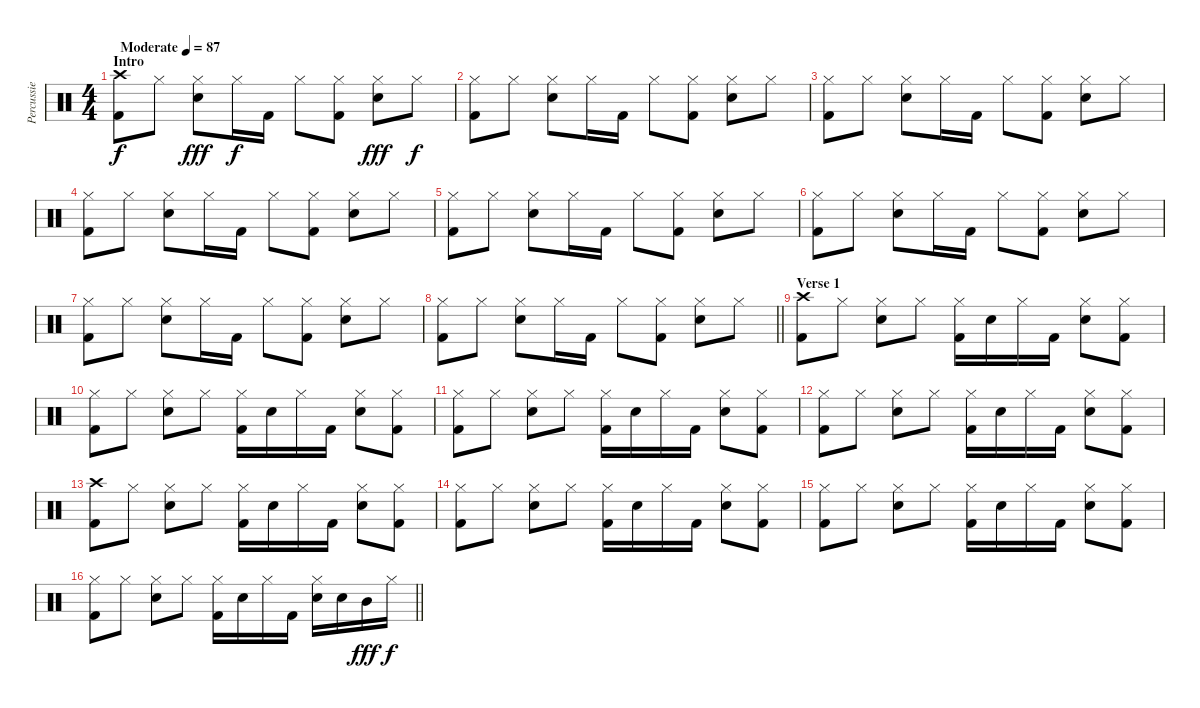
\track ("Percussie" "Percussie") {instrument percussion}
\staff {score}
\articulation defaults
\ts (4 4)
\section ("" "Intro")
\tempo (87 "Moderate")
\clef neutral
\ks c
("Crash high (hit)" "Kick (hit) 2").8{dy f} "Hi-Hat (closed)".8 ("Hi-Hat (closed)" "Snare (hit) 2").8{dy fff} "Hi-Hat (closed)".16{dy f} "Kick (hit) 2".16 "Hi-Hat (closed)".8 ("Hi-Hat (closed)" "Kick (hit) 2").8 ("Hi-Hat (closed)" "Snare (hit) 2").8{dy fff} "Hi-Hat (closed)".8{dy f} |
("Hi-Hat (closed)" "Kick (hit) 2").8 "Hi-Hat (closed)".8 ("Hi-Hat (closed)" "Snare (hit) 2").8 "Hi-Hat (closed)".16 "Kick (hit) 2".16 "Hi-Hat (closed)".8 ("Hi-Hat (closed)" "Kick (hit) 2").8 ("Hi-Hat (closed)" "Snare (hit) 2").8 "Hi-Hat (closed)".8 |
("Hi-Hat (closed)" "Kick (hit) 2").8 "Hi-Hat (closed)".8 ("Hi-Hat (closed)" "Snare (hit) 2").8 "Hi-Hat (closed)".16 "Kick (hit) 2".16 "Hi-Hat (closed)".8 ("Hi-Hat (closed)" "Kick (hit) 2").8 ("Hi-Hat (closed)" "Snare (hit) 2").8 "Hi-Hat (closed)".8 |
("Hi-Hat (closed)" "Kick (hit) 2").8 "Hi-Hat (closed)".8 ("Hi-Hat (closed)" "Snare (hit) 2").8 "Hi-Hat (closed)".16 "Kick (hit) 2".16 "Hi-Hat (closed)".8 ("Hi-Hat (closed)" "Kick (hit) 2").8 ("Hi-Hat (closed)" "Snare (hit) 2").8 "Hi-Hat (closed)".8 |
("Hi-Hat (closed)" "Kick (hit) 2").8 "Hi-Hat (closed)".8 ("Hi-Hat (closed)" "Snare (hit) 2").8 "Hi-Hat (closed)".16 "Kick (hit) 2".16 "Hi-Hat (closed)".8 ("Hi-Hat (closed)" "Kick (hit) 2").8 ("Hi-Hat (closed)" "Snare (hit) 2").8 "Hi-Hat (closed)".8 |
("Hi-Hat (closed)" "Kick (hit) 2").8 "Hi-Hat (closed)".8 ("Hi-Hat (closed)" "Snare (hit) 2").8 "Hi-Hat (closed)".16 "Kick (hit) 2".16 "Hi-Hat (closed)".8 ("Hi-Hat (closed)" "Kick (hit) 2").8 ("Hi-Hat (closed)" "Snare (hit) 2").8 "Hi-Hat (closed)".8 |
("Hi-Hat (closed)" "Kick (hit) 2").8 "Hi-Hat (closed)".8 ("Hi-Hat (closed)" "Snare (hit) 2").8 "Hi-Hat (closed)".16 "Kick (hit) 2".16 "Hi-Hat (closed)".8 ("Hi-Hat (closed)" "Kick (hit) 2").8 ("Hi-Hat (closed)" "Snare (hit) 2").8 "Hi-Hat (closed)".8 |
\barLineRight lightlight
("Hi-Hat (closed)" "Kick (hit) 2").8 "Hi-Hat (closed)".8 ("Hi-Hat (closed)" "Snare (hit) 2").8 "Hi-Hat (closed)".16 "Kick (hit) 2".16 "Hi-Hat (closed)".8 ("Hi-Hat (closed)" "Kick (hit) 2").8 ("Hi-Hat (closed)" "Snare (hit) 2").8 "Hi-Hat (closed)".8 |
\section ("" "Verse 1")
("Crash high (hit)" "Kick (hit) 2").8 "Hi-Hat (closed)".8 ("Hi-Hat (closed)" "Snare (hit) 2").8 "Hi-Hat (closed)".8 ("Hi-Hat (closed)" "Kick (hit) 2").16 "Snare (hit) 2".16 "Hi-Hat (closed)".16 "Kick (hit) 2".16 ("Hi-Hat (closed)" "Snare (hit) 2").8 ("Hi-Hat (closed)" "Kick (hit) 2").8 |
("Hi-Hat (closed)" "Kick (hit) 2").8 "Hi-Hat (closed)".8 ("Hi-Hat (closed)" "Snare (hit) 2").8 "Hi-Hat (closed)".8 ("Hi-Hat (closed)" "Kick (hit) 2").16 "Snare (hit) 2".16 "Hi-Hat (closed)".16 "Kick (hit) 2".16 ("Hi-Hat (closed)" "Snare (hit) 2").8 ("Hi-Hat (closed)" "Kick (hit) 2").8 |
("Hi-Hat (closed)" "Kick (hit) 2").8 "Hi-Hat (closed)".8 ("Hi-Hat (closed)" "Snare (hit) 2").8 "Hi-Hat (closed)".8 ("Hi-Hat (closed)" "Kick (hit) 2").16 "Snare (hit) 2".16 "Hi-Hat (closed)".16 "Kick (hit) 2".16 ("Hi-Hat (closed)" "Snare (hit) 2").8 ("Hi-Hat (closed)" "Kick (hit) 2").8 |
("Hi-Hat (closed)" "Kick (hit) 2").8 "Hi-Hat (closed)".8 ("Hi-Hat (closed)" "Snare (hit) 2").8 "Hi-Hat (closed)".8 ("Hi-Hat (closed)" "Kick (hit) 2").16 "Snare (hit) 2".16 "Hi-Hat (closed)".16 "Kick (hit) 2".16 ("Hi-Hat (closed)" "Snare (hit) 2").8 ("Hi-Hat (closed)" "Kick (hit) 2").8 |
("Crash high (hit)" "Kick (hit) 2").8 "Hi-Hat (closed)".8 ("Hi-Hat (closed)" "Snare (hit) 2").8 "Hi-Hat (closed)".8 ("Hi-Hat (closed)" "Kick (hit) 2").16 "Snare (hit) 2".16 "Hi-Hat (closed)".16 "Kick (hit) 2".16 ("Hi-Hat (closed)" "Snare (hit) 2").8 ("Hi-Hat (closed)" "Kick (hit) 2").8 |
("Hi-Hat (closed)" "Kick (hit) 2").8 "Hi-Hat (closed)".8 ("Hi-Hat (closed)" "Snare (hit) 2").8 "Hi-Hat (closed)".8 ("Hi-Hat (closed)" "Kick (hit) 2").16 "Snare (hit) 2".16 "Hi-Hat (closed)".16 "Kick (hit) 2".16 ("Hi-Hat (closed)" "Snare (hit) 2").8 ("Hi-Hat (closed)" "Kick (hit) 2").8 |
("Hi-Hat (closed)" "Kick (hit) 2").8 "Hi-Hat (closed)".8 ("Hi-Hat (closed)" "Snare (hit) 2").8 "Hi-Hat (closed)".8 ("Hi-Hat (closed)" "Kick (hit) 2").16 "Snare (hit) 2".16 "Hi-Hat (closed)".16 "Kick (hit) 2".16 ("Hi-Hat (closed)" "Snare (hit) 2").8 ("Hi-Hat (closed)" "Kick (hit) 2").8 |
\barLineRight lightlight
("Hi-Hat (closed)" "Kick (hit) 2").8 "Hi-Hat (closed)".8 ("Hi-Hat (closed)" "Snare (hit) 2").8 "Hi-Hat (closed)".8 ("Hi-Hat (closed)" "Kick (hit) 2").16 "Snare (hit) 2".16 "Hi-Hat (closed)".16 "Kick (hit) 2".16 ("Hi-Hat (closed)" "Snare (hit) 2").16 "Snare (hit) 2".16 "Mid Tom (hit)".16{dy fff} "Hi-Hat (closed)".16{dy f}
